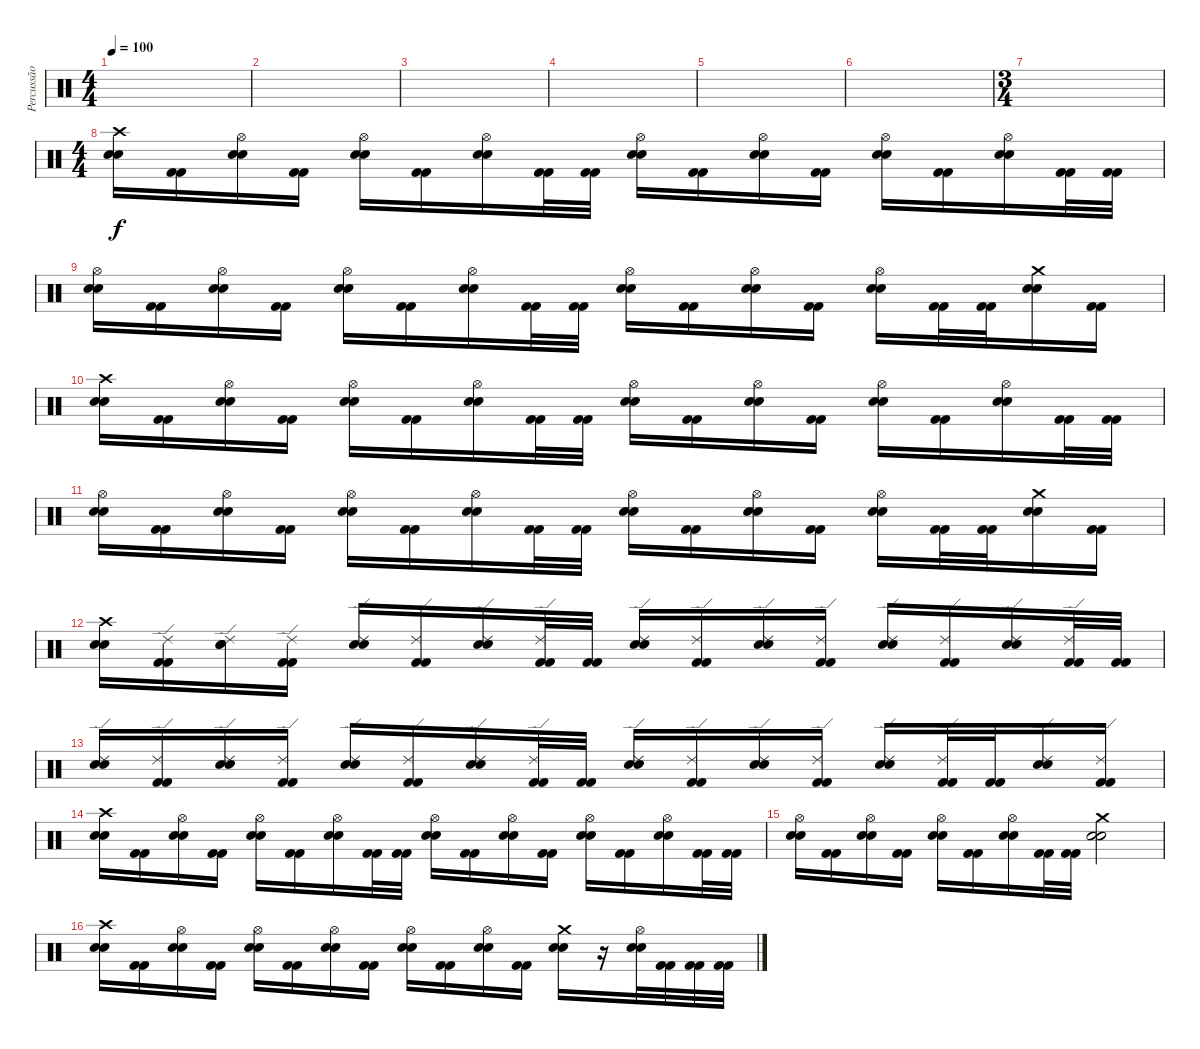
\track ("Percussão" "Percussão") {instrument percussion}
\staff {score}
\articulation defaults
\ts (4 4)
\tempo 100
\clef neutral
\ks c
|
|
|
|
|
|
\ts (3 4)
|
\ts (4 4)
("Crash high (hit)" "Electric Snare (hit)" "Electric Snare (hit)").16 ("Kick (hit) 2" "Kick (hit) 2").16 ("Hi-Hat (open)" "Electric Snare (hit)" "Electric Snare (hit)").16 ("Kick (hit) 2" "Kick (hit) 2").16 ("Hi-Hat (open)" "Electric Snare (hit)" "Electric Snare (hit)").16 ("Kick (hit) 2" "Kick (hit) 2").16 ("Hi-Hat (open)" "Electric Snare (hit)" "Electric Snare (hit)").16 ("Kick (hit) 2" "Kick (hit) 2").32 ("Kick (hit) 2" "Kick (hit) 2").32 ("Hi-Hat (open)" "Electric Snare (hit)" "Electric Snare (hit)").16 ("Kick (hit) 2" "Kick (hit) 2").16 ("Hi-Hat (open)" "Electric Snare (hit)" "Electric Snare (hit)").16 ("Kick (hit) 2" "Kick (hit) 2").16 ("Hi-Hat (open)" "Electric Snare (hit)" "Electric Snare (hit)").16 ("Kick (hit) 2" "Kick (hit) 2").16 ("Hi-Hat (open)" "Electric Snare (hit)" "Electric Snare (hit)").16 ("Kick (hit) 2" "Kick (hit) 2").32 ("Kick (hit) 2" "Kick (hit) 2").32 |
("Hi-Hat (open)" "Electric Snare (hit)" "Electric Snare (hit)").16 ("Kick (hit) 2" "Kick (hit) 2").16 ("Hi-Hat (open)" "Electric Snare (hit)" "Electric Snare (hit)").16 ("Kick (hit) 2" "Kick (hit) 2").16 ("Hi-Hat (open)" "Electric Snare (hit)" "Electric Snare (hit)").16 ("Kick (hit) 2" "Kick (hit) 2").16 ("Hi-Hat (open)" "Electric Snare (hit)" "Electric Snare (hit)").16 ("Kick (hit) 2" "Kick (hit) 2").32 ("Kick (hit) 2" "Kick (hit) 2").32 ("Hi-Hat (open)" "Electric Snare (hit)" "Electric Snare (hit)").16 ("Kick (hit) 2" "Kick (hit) 2").16 ("Hi-Hat (open)" "Electric Snare (hit)" "Electric Snare (hit)").16 ("Kick (hit) 2" "Kick (hit) 2").16 ("Hi-Hat (open)" "Electric Snare (hit)" "Electric Snare (hit)").16 ("Kick (hit) 2" "Kick (hit) 2").32 ("Kick (hit) 2" "Kick (hit) 2").32 ("Crash medium (hit)" "Electric Snare (hit)" "Electric Snare (hit)").16 ("Kick (hit) 2" "Kick (hit) 2").16 |
("Crash high (hit)" "Electric Snare (hit)" "Electric Snare (hit)").16 ("Kick (hit) 2" "Kick (hit) 2").16 ("Hi-Hat (open)" "Electric Snare (hit)" "Electric Snare (hit)").16 ("Kick (hit) 2" "Kick (hit) 2").16 ("Hi-Hat (open)" "Electric Snare (hit)" "Electric Snare (hit)").16 ("Kick (hit) 2" "Kick (hit) 2").16 ("Hi-Hat (open)" "Electric Snare (hit)" "Electric Snare (hit)").16 ("Kick (hit) 2" "Kick (hit) 2").32 ("Kick (hit) 2" "Kick (hit) 2").32 ("Hi-Hat (open)" "Electric Snare (hit)" "Electric Snare (hit)").16 ("Kick (hit) 2" "Kick (hit) 2").16 ("Hi-Hat (open)" "Electric Snare (hit)" "Electric Snare (hit)").16 ("Kick (hit) 2" "Kick (hit) 2").16 ("Hi-Hat (open)" "Electric Snare (hit)" "Electric Snare (hit)").16 ("Kick (hit) 2" "Kick (hit) 2").16 ("Hi-Hat (open)" "Electric Snare (hit)" "Electric Snare (hit)").16 ("Kick (hit) 2" "Kick (hit) 2").32 ("Kick (hit) 2" "Kick (hit) 2").32 |
("Hi-Hat (open)" "Electric Snare (hit)" "Electric Snare (hit)").16 ("Kick (hit) 2" "Kick (hit) 2").16 ("Hi-Hat (open)" "Electric Snare (hit)" "Electric Snare (hit)").16 ("Kick (hit) 2" "Kick (hit) 2").16 ("Hi-Hat (open)" "Electric Snare (hit)" "Electric Snare (hit)").16 ("Kick (hit) 2" "Kick (hit) 2").16 ("Hi-Hat (open)" "Electric Snare (hit)" "Electric Snare (hit)").16 ("Kick (hit) 2" "Kick (hit) 2").32 ("Kick (hit) 2" "Kick (hit) 2").32 ("Hi-Hat (open)" "Electric Snare (hit)" "Electric Snare (hit)").16 ("Kick (hit) 2" "Kick (hit) 2").16 ("Hi-Hat (open)" "Electric Snare (hit)" "Electric Snare (hit)").16 ("Kick (hit) 2" "Kick (hit) 2").16 ("Hi-Hat (open)" "Electric Snare (hit)" "Electric Snare (hit)").16 ("Kick (hit) 2" "Kick (hit) 2").32 ("Kick (hit) 2" "Kick (hit) 2").32 ("Crash medium (hit)" "Electric Snare (hit)" "Electric Snare (hit)").16 ("Kick (hit) 2" "Kick (hit) 2").16 |
("Crash high (hit)" "Electric Snare (hit)" "Electric Snare (hit)").16 ("Ride (edge) 2" "Kick (hit) 2" "Kick (hit) 2").16 ("Ride (edge) 2" "Electric Snare (hit)" "Electric Snare (hit)").16 ("Ride (edge) 2" "Kick (hit) 2" "Kick (hit) 2").16 ("Ride (edge) 2" "Electric Snare (hit)" "Electric Snare (hit)").16 ("Ride (edge) 2" "Kick (hit) 2" "Kick (hit) 2").16 ("Ride (edge) 2" "Electric Snare (hit)" "Electric Snare (hit)").16 ("Ride (edge) 2" "Kick (hit) 2" "Kick (hit) 2").32 ("Kick (hit) 2" "Kick (hit) 2").32 ("Ride (edge) 2" "Electric Snare (hit)" "Electric Snare (hit)").16 ("Ride (edge) 2" "Kick (hit) 2" "Kick (hit) 2").16 ("Ride (edge) 2" "Electric Snare (hit)" "Electric Snare (hit)").16 ("Ride (edge) 2" "Kick (hit) 2" "Kick (hit) 2").16 ("Ride (edge) 2" "Electric Snare (hit)" "Electric Snare (hit)").16 ("Ride (edge) 2" "Kick (hit) 2" "Kick (hit) 2").16 ("Ride (edge) 2" "Electric Snare (hit)" "Electric Snare (hit)").16 ("Ride (edge) 2" "Kick (hit) 2" "Kick (hit) 2").32 ("Kick (hit) 2" "Kick (hit) 2").32 |
("Ride (edge) 2" "Electric Snare (hit)" "Electric Snare (hit)").16 ("Ride (edge) 2" "Kick (hit) 2" "Kick (hit) 2").16 ("Ride (edge) 2" "Electric Snare (hit)" "Electric Snare (hit)").16 ("Ride (edge) 2" "Kick (hit) 2" "Kick (hit) 2").16 ("Ride (edge) 2" "Electric Snare (hit)" "Electric Snare (hit)").16 ("Ride (edge) 2" "Kick (hit) 2" "Kick (hit) 2").16 ("Ride (edge) 2" "Electric Snare (hit)" "Electric Snare (hit)").16 ("Ride (edge) 2" "Kick (hit) 2" "Kick (hit) 2").32 ("Kick (hit) 2" "Kick (hit) 2").32 ("Ride (edge) 2" "Electric Snare (hit)" "Electric Snare (hit)").16 ("Ride (edge) 2" "Kick (hit) 2" "Kick (hit) 2").16 ("Ride (edge) 2" "Electric Snare (hit)" "Electric Snare (hit)").16 ("Ride (edge) 2" "Kick (hit) 2" "Kick (hit) 2").16 ("Ride (edge) 2" "Electric Snare (hit)" "Electric Snare (hit)").16 ("Ride (edge) 2" "Kick (hit) 2" "Kick (hit) 2").32 ("Kick (hit) 2" "Kick (hit) 2").32 ("Ride (edge) 2" "Electric Snare (hit)" "Electric Snare (hit)").16 ("Ride (edge) 2" "Kick (hit) 2" "Kick (hit) 2").16 |
("Crash high (hit)" "Electric Snare (hit)" "Electric Snare (hit)").16 ("Kick (hit) 2" "Kick (hit) 2").16 ("Hi-Hat (open)" "Electric Snare (hit)" "Electric Snare (hit)").16 ("Kick (hit) 2" "Kick (hit) 2").16 ("Hi-Hat (open)" "Electric Snare (hit)" "Electric Snare (hit)").16 ("Kick (hit) 2" "Kick (hit) 2").16 ("Hi-Hat (open)" "Electric Snare (hit)" "Electric Snare (hit)").16 ("Kick (hit) 2" "Kick (hit) 2").32 ("Kick (hit) 2" "Kick (hit) 2").32 ("Hi-Hat (open)" "Electric Snare (hit)" "Electric Snare (hit)").16 ("Kick (hit) 2" "Kick (hit) 2").16 ("Hi-Hat (open)" "Electric Snare (hit)" "Electric Snare (hit)").16 ("Kick (hit) 2" "Kick (hit) 2").16 ("Hi-Hat (open)" "Electric Snare (hit)" "Electric Snare (hit)").16 ("Kick (hit) 2" "Kick (hit) 2").16 ("Hi-Hat (open)" "Electric Snare (hit)" "Electric Snare (hit)").16 ("Kick (hit) 2" "Kick (hit) 2").32 ("Kick (hit) 2" "Kick (hit) 2").32 |
("Hi-Hat (open)" "Electric Snare (hit)" "Electric Snare (hit)").16 ("Kick (hit) 2" "Kick (hit) 2").16 ("Hi-Hat (open)" "Electric Snare (hit)" "Electric Snare (hit)").16 ("Kick (hit) 2" "Kick (hit) 2").16 ("Hi-Hat (open)" "Electric Snare (hit)" "Electric Snare (hit)").16 ("Kick (hit) 2" "Kick (hit) 2").16 ("Hi-Hat (open)" "Electric Snare (hit)" "Electric Snare (hit)").16 ("Kick (hit) 2" "Kick (hit) 2").32 ("Kick (hit) 2" "Kick (hit) 2").32 ("Crash medium (hit)" "Electric Snare (hit)" "Electric Snare (hit)").2 |
("Crash high (hit)" "Electric Snare (hit)" "Electric Snare (hit)").16 ("Kick (hit) 2" "Kick (hit) 2").16 ("Hi-Hat (open)" "Electric Snare (hit)" "Electric Snare (hit)").16 ("Kick (hit) 2" "Kick (hit) 2").16 ("Hi-Hat (open)" "Electric Snare (hit)" "Electric Snare (hit)").16 ("Kick (hit) 2" "Kick (hit) 2").16 ("Hi-Hat (open)" "Electric Snare (hit)" "Electric Snare (hit)").16 ("Kick (hit) 2" "Kick (hit) 2").16 ("Hi-Hat (open)" "Electric Snare (hit)" "Electric Snare (hit)").16 ("Kick (hit) 2" "Kick (hit) 2").16 ("Hi-Hat (open)" "Electric Snare (hit)" "Electric Snare (hit)").16 ("Kick (hit) 2" "Kick (hit) 2").16 ("Crash medium (hit)" "Electric Snare (hit)" "Electric Snare (hit)").16 r.16 ("Hi-Hat (open)" "Electric Snare (hit)" "Electric Snare (hit)").32 ("Kick (hit) 2" "Kick (hit) 2").32 ("Kick (hit) 2" "Kick (hit) 2").32 ("Kick (hit) 2" "Kick (hit) 2").32
